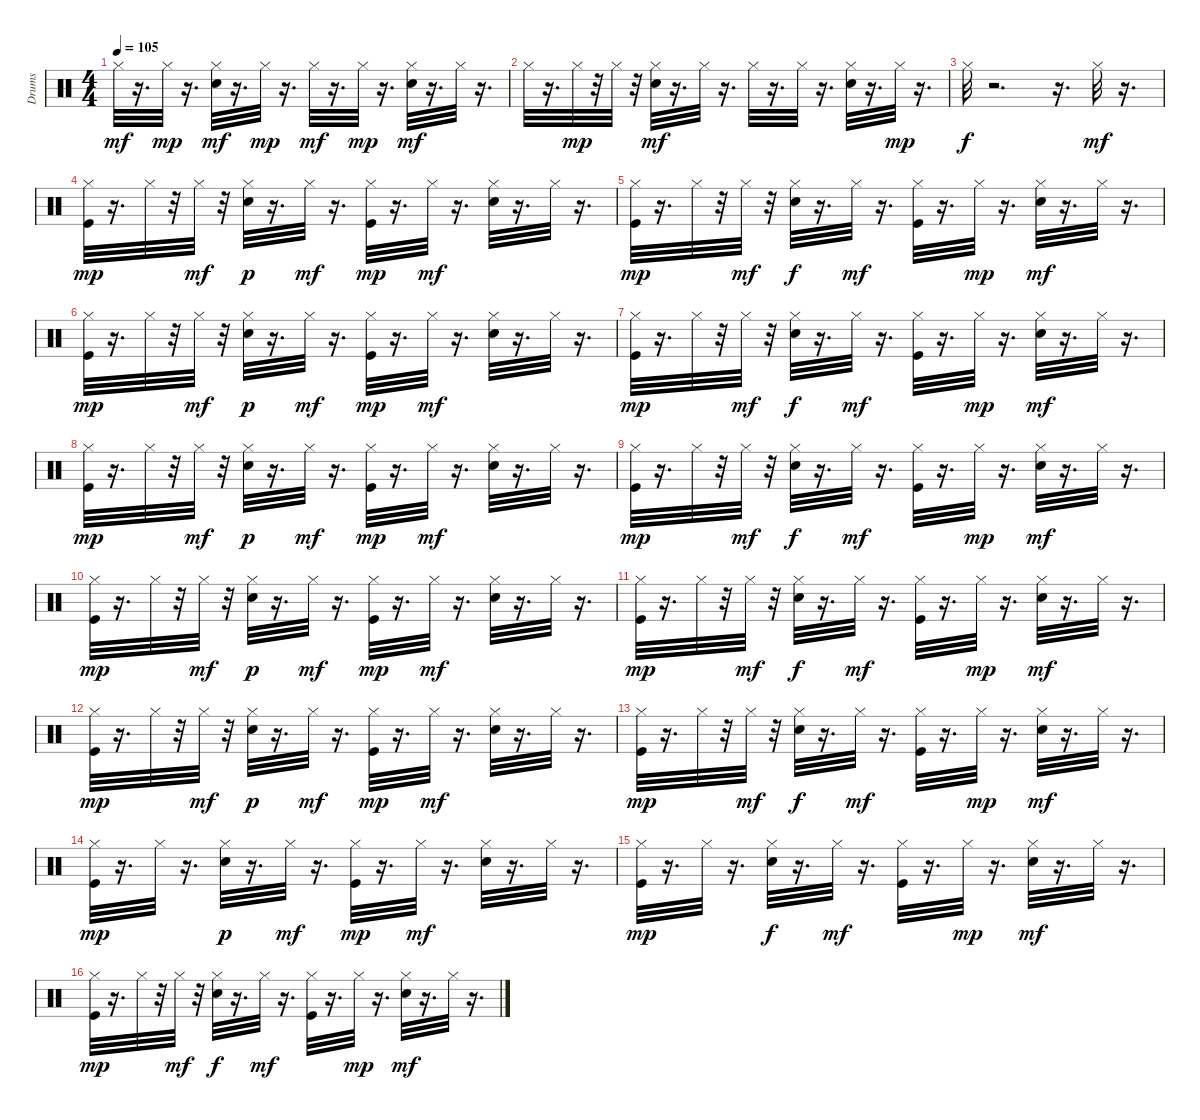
\track ("Drums" "Drums") {instrument percussion}
\staff {score}
\articulation defaults
\ts (4 4)
\tempo 105
\clef neutral
\ks c "Hi-Hat (closed)".32{dy mf}
r.16{d} "Hi-Hat (closed)".32{dy mp} r.16{d} ("Snare (hit) 2" "Hi-Hat (closed)").32{dy mf} r.16{d} "Hi-Hat (closed)".32{dy mp} r.16{d} "Hi-Hat (closed)".32{dy mf} r.16{d} "Hi-Hat (closed)".32{dy mp} r.16{d} ("Snare (hit) 2" "Hi-Hat (closed)").32{dy mf} r.16{d} "Hi-Hat (closed)".32 r.16{d} |
"Hi-Hat (closed)".32 r.16{d} "Hi-Hat (closed)".32{dy mp} r.32 "Hi-Hat (closed)".32 r.32 ("Snare (hit) 2" "Hi-Hat (closed)").32{dy mf} r.16{d} "Hi-Hat (closed)".32 r.16{d} "Hi-Hat (closed)".32 r.16{d} "Hi-Hat (closed)".32 r.16{d} ("Snare (hit) 2" "Hi-Hat (closed)").32 r.16{d} "Hi-Hat (closed)".32{dy mp} r.16{d} |
"Hi-Hat (closed)".32{dy f} r.2{d} r.16{d} "Hi-Hat (closed)".32{dy mf} r.16{d} |
("Kick (hit)" "Hi-Hat (closed)").32{dy mp} r.16{d} "Hi-Hat (closed)".32 r.32 "Hi-Hat (closed)".32{dy mf} r.32 ("Snare (hit) 2" "Hi-Hat (closed)").32{dy p} r.16{d} "Hi-Hat (closed)".32{dy mf} r.16{d} ("Kick (hit)" "Hi-Hat (closed)").32{dy mp} r.16{d} "Hi-Hat (closed)".32{dy mf} r.16{d} ("Snare (hit) 2" "Hi-Hat (closed)").32 r.16{d} "Hi-Hat (closed)".32 r.16{d} |
("Kick (hit)" "Hi-Hat (closed)").32{dy mp} r.16{d} "Hi-Hat (closed)".32 r.32 "Hi-Hat (closed)".32{dy mf} r.32 ("Snare (hit) 2" "Hi-Hat (closed)").32{dy f} r.16{d} "Hi-Hat (closed)".32{dy mf} r.16{d} ("Kick (hit)" "Hi-Hat (closed)").32 r.16{d} "Hi-Hat (closed)".32{dy mp} r.16{d} ("Snare (hit) 2" "Hi-Hat (closed)").32{dy mf} r.16{d} "Hi-Hat (closed)".32 r.16{d} |
("Kick (hit)" "Hi-Hat (closed)").32{dy mp} r.16{d} "Hi-Hat (closed)".32 r.32 "Hi-Hat (closed)".32{dy mf} r.32 ("Snare (hit) 2" "Hi-Hat (closed)").32{dy p} r.16{d} "Hi-Hat (closed)".32{dy mf} r.16{d} ("Kick (hit)" "Hi-Hat (closed)").32{dy mp} r.16{d} "Hi-Hat (closed)".32{dy mf} r.16{d} ("Snare (hit) 2" "Hi-Hat (closed)").32 r.16{d} "Hi-Hat (closed)".32 r.16{d} |
("Kick (hit)" "Hi-Hat (closed)").32{dy mp} r.16{d} "Hi-Hat (closed)".32 r.32 "Hi-Hat (closed)".32{dy mf} r.32 ("Snare (hit) 2" "Hi-Hat (closed)").32{dy f} r.16{d} "Hi-Hat (closed)".32{dy mf} r.16{d} ("Kick (hit)" "Hi-Hat (closed)").32 r.16{d} "Hi-Hat (closed)".32{dy mp} r.16{d} ("Snare (hit) 2" "Hi-Hat (closed)").32{dy mf} r.16{d} "Hi-Hat (closed)".32 r.16{d} |
("Kick (hit)" "Hi-Hat (closed)").32{dy mp} r.16{d} "Hi-Hat (closed)".32 r.32 "Hi-Hat (closed)".32{dy mf} r.32 ("Snare (hit) 2" "Hi-Hat (closed)").32{dy p} r.16{d} "Hi-Hat (closed)".32{dy mf} r.16{d} ("Kick (hit)" "Hi-Hat (closed)").32{dy mp} r.16{d} "Hi-Hat (closed)".32{dy mf} r.16{d} ("Snare (hit) 2" "Hi-Hat (closed)").32 r.16{d} "Hi-Hat (closed)".32 r.16{d} |
("Kick (hit)" "Hi-Hat (closed)").32{dy mp} r.16{d} "Hi-Hat (closed)".32 r.32 "Hi-Hat (closed)".32{dy mf} r.32 ("Snare (hit) 2" "Hi-Hat (closed)").32{dy f} r.16{d} "Hi-Hat (closed)".32{dy mf} r.16{d} ("Kick (hit)" "Hi-Hat (closed)").32 r.16{d} "Hi-Hat (closed)".32{dy mp} r.16{d} ("Snare (hit) 2" "Hi-Hat (closed)").32{dy mf} r.16{d} "Hi-Hat (closed)".32 r.16{d} |
("Kick (hit)" "Hi-Hat (closed)").32{dy mp} r.16{d} "Hi-Hat (closed)".32 r.32 "Hi-Hat (closed)".32{dy mf} r.32 ("Snare (hit) 2" "Hi-Hat (closed)").32{dy p} r.16{d} "Hi-Hat (closed)".32{dy mf} r.16{d} ("Kick (hit)" "Hi-Hat (closed)").32{dy mp} r.16{d} "Hi-Hat (closed)".32{dy mf} r.16{d} ("Snare (hit) 2" "Hi-Hat (closed)").32 r.16{d} "Hi-Hat (closed)".32 r.16{d} |
("Kick (hit)" "Hi-Hat (closed)").32{dy mp} r.16{d} "Hi-Hat (closed)".32 r.32 "Hi-Hat (closed)".32{dy mf} r.32 ("Snare (hit) 2" "Hi-Hat (closed)").32{dy f} r.16{d} "Hi-Hat (closed)".32{dy mf} r.16{d} ("Kick (hit)" "Hi-Hat (closed)").32 r.16{d} "Hi-Hat (closed)".32{dy mp} r.16{d} ("Snare (hit) 2" "Hi-Hat (closed)").32{dy mf} r.16{d} "Hi-Hat (closed)".32 r.16{d} |
("Kick (hit)" "Hi-Hat (closed)").32{dy mp} r.16{d} "Hi-Hat (closed)".32 r.32 "Hi-Hat (closed)".32{dy mf} r.32 ("Snare (hit) 2" "Hi-Hat (closed)").32{dy p} r.16{d} "Hi-Hat (closed)".32{dy mf} r.16{d} ("Kick (hit)" "Hi-Hat (closed)").32{dy mp} r.16{d} "Hi-Hat (closed)".32{dy mf} r.16{d} ("Snare (hit) 2" "Hi-Hat (closed)").32 r.16{d} "Hi-Hat (closed)".32 r.16{d} |
("Kick (hit)" "Hi-Hat (closed)").32{dy mp} r.16{d} "Hi-Hat (closed)".32 r.32 "Hi-Hat (closed)".32{dy mf} r.32 ("Snare (hit) 2" "Hi-Hat (closed)").32{dy f} r.16{d} "Hi-Hat (closed)".32{dy mf} r.16{d} ("Kick (hit)" "Hi-Hat (closed)").32 r.16{d} "Hi-Hat (closed)".32{dy mp} r.16{d} ("Snare (hit) 2" "Hi-Hat (closed)").32{dy mf} r.16{d} "Hi-Hat (closed)".32 r.16{d} |
("Kick (hit)" "Hi-Hat (closed)").32{dy mp} r.16{d} "Hi-Hat (closed)".32 r.16{d} ("Snare (hit) 2" "Hi-Hat (closed)").32{dy p} r.16{d} "Hi-Hat (closed)".32{dy mf} r.16{d} ("Kick (hit)" "Hi-Hat (closed)").32{dy mp} r.16{d} "Hi-Hat (closed)".32{dy mf} r.16{d} ("Snare (hit) 2" "Hi-Hat (closed)").32 r.16{d} "Hi-Hat (closed)".32 r.16{d} |
("Kick (hit)" "Hi-Hat (closed)").32{dy mp} r.16{d} "Hi-Hat (closed)".32 r.16{d} ("Snare (hit) 2" "Hi-Hat (closed)").32{dy f} r.16{d} "Hi-Hat (closed)".32{dy mf} r.16{d} ("Kick (hit)" "Hi-Hat (closed)").32 r.16{d} "Hi-Hat (closed)".32{dy mp} r.16{d} ("Snare (hit) 2" "Hi-Hat (closed)").32{dy mf} r.16{d} "Hi-Hat (closed)".32 r.16{d} |
("Kick (hit)" "Hi-Hat (closed)").32{dy mp} r.16{d} "Hi-Hat (closed)".32 r.32 "Hi-Hat (closed)".32{dy mf} r.32 ("Snare (hit) 2" "Hi-Hat (closed)").32{dy f} r.16{d} "Hi-Hat (closed)".32{dy mf} r.16{d} ("Kick (hit)" "Hi-Hat (closed)").32 r.16{d} "Hi-Hat (closed)".32{dy mp} r.16{d} ("Snare (hit) 2" "Hi-Hat (closed)").32{dy mf} r.16{d} "Hi-Hat (closed)".32 r.16{d}
